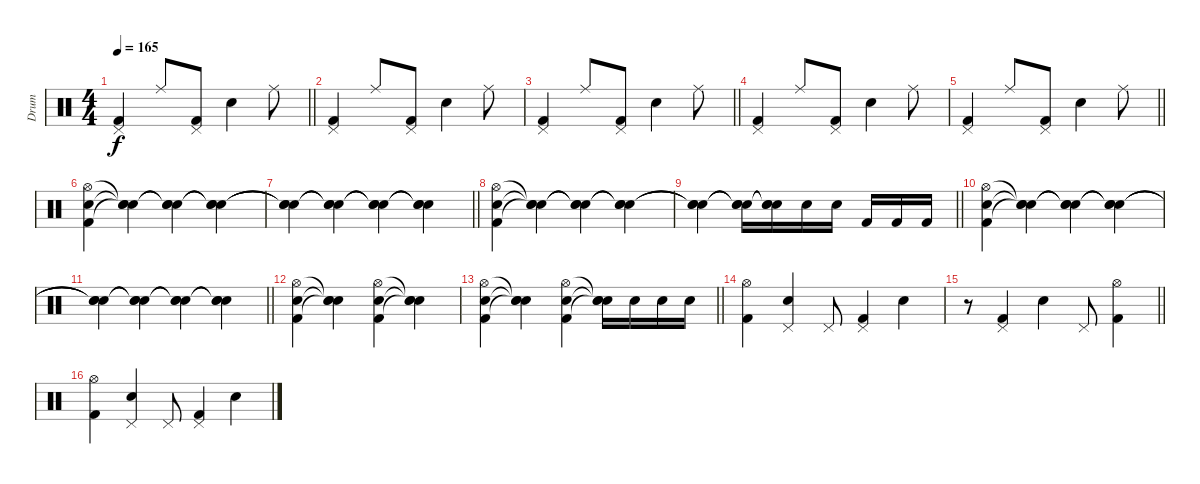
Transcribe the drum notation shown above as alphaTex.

\track ("Drum" "Drum") {instrument percussion}
\staff {score}
\articulation defaults
\ts (4 4)
\tempo 165
\clef neutral
\barLineRight lightlight
\ks c
("Kick (hit) 2" "Pedal Hi-Hat (hit)").4{dy f} "Ride (middle)".8 ("Kick (hit) 2" "Pedal Hi-Hat (hit)").8 "Electric Snare (hit)".4 "Ride (middle)".8 |
("Kick (hit) 2" "Pedal Hi-Hat (hit)").4 "Ride (middle)".8 ("Kick (hit) 2" "Pedal Hi-Hat (hit)").8 "Electric Snare (hit)".4 "Ride (middle)".8 |
\barLineRight lightlight
("Kick (hit) 2" "Pedal Hi-Hat (hit)").4 "Ride (middle)".8 ("Kick (hit) 2" "Pedal Hi-Hat (hit)").8 "Electric Snare (hit)".4 "Ride (middle)".8 |
("Kick (hit) 2" "Pedal Hi-Hat (hit)").4 "Ride (middle)".8 ("Kick (hit) 2" "Pedal Hi-Hat (hit)").8 "Electric Snare (hit)".4 "Ride (middle)".8 |
\barLineRight lightlight
("Kick (hit) 2" "Pedal Hi-Hat (hit)").4 "Ride (middle)".8 ("Kick (hit) 2" "Pedal Hi-Hat (hit)").8 "Electric Snare (hit)".4 "Ride (middle)".8 |
("Kick (hit) 2" "Electric Snare (hit)" "Hi-Hat (open)").4 ("Snare (hit)"{t} "Snare (hit)"{t} "Snare (hit)"{t}).4 ("Snare (hit)"{t} "Snare (hit)"{t} "Snare (hit)"{t}).4 ("Snare (hit)"{t} "Snare (hit)"{t} "Snare (hit)"{t}).4 |
\barLineRight lightlight
("Snare (hit)"{t} "Snare (hit)"{t} "Snare (hit)"{t}).4 ("Snare (hit)"{t} "Snare (hit)"{t} "Snare (hit)"{t}).4 ("Snare (hit)"{t} "Snare (hit)"{t} "Snare (hit)"{t}).4 ("Snare (hit)"{t} "Snare (hit)"{t} "Snare (hit)"{t}).4 |
("Kick (hit) 2" "Electric Snare (hit)" "Hi-Hat (open)").4 ("Snare (hit)"{t} "Snare (hit)"{t} "Snare (hit)"{t}).4 ("Snare (hit)"{t} "Snare (hit)"{t} "Snare (hit)"{t}).4 ("Snare (hit)"{t} "Snare (hit)"{t} "Snare (hit)"{t}).4 |
\barLineRight lightlight
("Snare (hit)"{t} "Snare (hit)"{t} "Snare (hit)"{t}).4 ("Electric Snare (hit)"{t} "Snare (hit)"{t} "Snare (hit)"{t}).16 ("Electric Snare (hit)"{t} "Snare (hit)"{t} "Snare (hit)"{t}).16 "Electric Snare (hit)".16 "Snare (hit) 2".16 "Kick (hit) 2".16 "Kick (hit) 2".16 "Kick (hit) 2".16 |
("Kick (hit) 2" "Electric Snare (hit)" "Hi-Hat (open)").4 ("Snare (hit)"{t} "Snare (hit)"{t} "Snare (hit)"{t}).4 ("Snare (hit)"{t} "Snare (hit)"{t} "Snare (hit)"{t}).4 ("Snare (hit)"{t} "Snare (hit)"{t} "Snare (hit)"{t}).4 |
\barLineRight lightlight
("Snare (hit)"{t} "Snare (hit)"{t} "Snare (hit)"{t}).4 ("Snare (hit)"{t} "Snare (hit)"{t} "Snare (hit)"{t}).4 ("Snare (hit)"{t} "Snare (hit)"{t} "Snare (hit)"{t}).4 ("Snare (hit)"{t} "Snare (hit)"{t} "Snare (hit)"{t}).4 |
("Kick (hit) 2" "Electric Snare (hit)" "Hi-Hat (open)").4 ("Snare (hit)"{t} "Snare (hit)"{t} "Snare (hit)"{t}).4 ("Kick (hit) 2" "Electric Snare (hit)" "Hi-Hat (open)").4 ("Snare (hit)"{t} "Snare (hit)"{t} "Snare (hit)"{t}).4 |
\barLineRight lightlight
("Kick (hit) 2" "Electric Snare (hit)" "Hi-Hat (open)").4 ("Snare (hit)"{t} "Snare (hit)"{t} "Snare (hit)"{t}).4 ("Kick (hit) 2" "Electric Snare (hit)" "Hi-Hat (open)").4 ("Snare (hit)"{t} "Snare (hit)"{t} "Snare (hit)"{t}).16 "Electric Snare (hit)".16 "Electric Snare (hit)".16 "Electric Snare (hit)".16 |
("Kick (hit) 2" "Hi-Hat (open)").4 ("Electric Snare (hit)" "Pedal Hi-Hat (hit)").4 "Pedal Hi-Hat (hit)".8 ("Kick (hit) 2" "Pedal Hi-Hat (hit)").4 "Electric Snare (hit)".4 |
\barLineRight lightlight
r.8 ("Kick (hit) 2" "Pedal Hi-Hat (hit)").4 "Electric Snare (hit)".4 "Pedal Hi-Hat (hit)".8 ("Kick (hit) 2" "Hi-Hat (open)").4 |
("Kick (hit) 2" "Hi-Hat (open)").4 ("Electric Snare (hit)" "Pedal Hi-Hat (hit)").4 "Pedal Hi-Hat (hit)".8 ("Kick (hit) 2" "Pedal Hi-Hat (hit)").4 "Electric Snare (hit)".4
